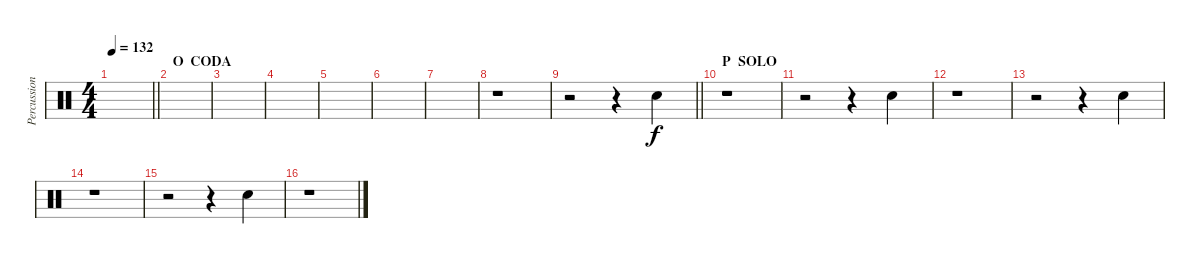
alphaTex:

\track ("Percussions" "Percussion") {instrument percussion}
\staff {score}
\articulation defaults
\ts (4 4)
\tempo 132
\clef neutral
\barLineRight lightlight
\ks c
|
\section ("" "O  CODA")
|
|
|
|
|
|
r.1 |
\barLineRight lightlight
r.2 r.4 "Electric Snare (hit)".4 |
\section ("" "P  SOLO")
r.1 |
r.2 r.4 "Electric Snare (hit)".4 |
r.1 |
r.2 r.4 "Electric Snare (hit)".4 |
r.1 |
r.2 r.4 "Electric Snare (hit)".4 |
r.1
